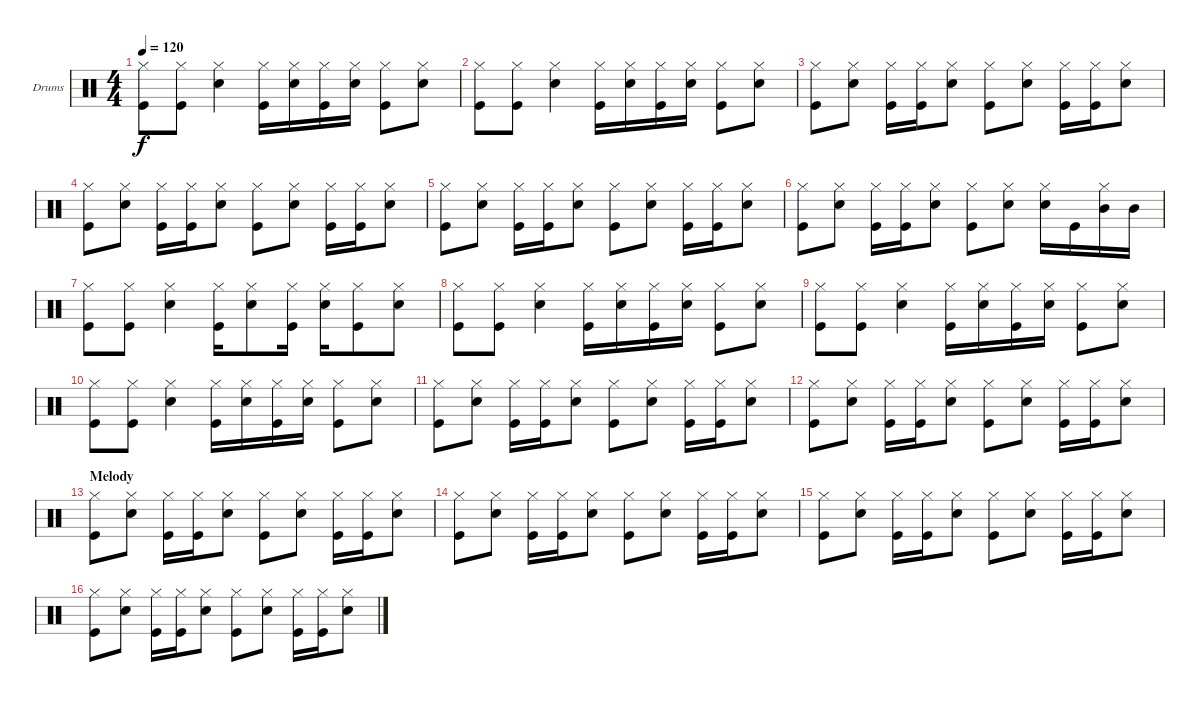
\defaultSystemsLayout 4
\bracketExtendMode groupsimilarinstruments
\firstSystemTrackNameOrientation horizontal
\otherSystemsTrackNameOrientation horizontal
\track ("Drumkit" "Drums") {instrument percussion}
\staff {score}
\articulation defaults
\ts (4 4)
\tempo 120
\clef neutral
\ks c
("Hi-Hat (closed)" "Kick (hit)").8{dy f} ("Hi-Hat (closed)" "Kick (hit)").8 ("Hi-Hat (closed)" "Snare (hit) 2").4 ("Hi-Hat (closed)" "Kick (hit)").16 ("Hi-Hat (closed)" "Snare (hit) 2").16 ("Hi-Hat (closed)" "Kick (hit)").16 ("Hi-Hat (closed)" "Snare (hit) 2").16 ("Hi-Hat (closed)" "Kick (hit)").8 ("Hi-Hat (closed)" "Snare (hit) 2").8 |
("Hi-Hat (closed)" "Kick (hit)").8 ("Hi-Hat (closed)" "Kick (hit)").8 ("Hi-Hat (closed)" "Snare (hit) 2").4 ("Hi-Hat (closed)" "Kick (hit)").16 ("Hi-Hat (closed)" "Snare (hit) 2").16 ("Hi-Hat (closed)" "Kick (hit)").16 ("Hi-Hat (closed)" "Snare (hit) 2").16 ("Hi-Hat (closed)" "Kick (hit)").8 ("Hi-Hat (closed)" "Snare (hit) 2").8 |
("Hi-Hat (closed)" "Kick (hit)").8 ("Hi-Hat (closed)" "Snare (hit) 2").8 ("Hi-Hat (closed)" "Kick (hit)").16 ("Hi-Hat (closed)" "Kick (hit)").16 ("Hi-Hat (closed)" "Snare (hit) 2").8 ("Hi-Hat (closed)" "Kick (hit)").8 ("Hi-Hat (closed)" "Snare (hit) 2").8 ("Hi-Hat (closed)" "Kick (hit)").16 ("Hi-Hat (closed)" "Kick (hit)").16 ("Hi-Hat (closed)" "Snare (hit) 2").8 |
("Hi-Hat (closed)" "Kick (hit)").8 ("Hi-Hat (closed)" "Snare (hit) 2").8 ("Hi-Hat (closed)" "Kick (hit)").16 ("Hi-Hat (closed)" "Kick (hit)").16 ("Hi-Hat (closed)" "Snare (hit) 2").8 ("Hi-Hat (closed)" "Kick (hit)").8 ("Hi-Hat (closed)" "Snare (hit) 2").8 ("Hi-Hat (closed)" "Kick (hit)").16 ("Hi-Hat (closed)" "Kick (hit)").16 ("Hi-Hat (closed)" "Snare (hit) 2").8 |
("Hi-Hat (closed)" "Kick (hit)").8 ("Hi-Hat (closed)" "Snare (hit) 2").8 ("Hi-Hat (closed)" "Kick (hit)").16 ("Hi-Hat (closed)" "Kick (hit)").16 ("Hi-Hat (closed)" "Snare (hit) 2").8 ("Hi-Hat (closed)" "Kick (hit)").8 ("Hi-Hat (closed)" "Snare (hit) 2").8 ("Hi-Hat (closed)" "Kick (hit)").16 ("Hi-Hat (closed)" "Kick (hit)").16 ("Hi-Hat (closed)" "Snare (hit) 2").8 |
("Hi-Hat (closed)" "Kick (hit)").8 ("Hi-Hat (closed)" "Snare (hit) 2").8 ("Hi-Hat (closed)" "Kick (hit)").16 ("Hi-Hat (closed)" "Kick (hit)").16 ("Hi-Hat (closed)" "Snare (hit) 2").8 ("Hi-Hat (closed)" "Kick (hit)").8 ("Hi-Hat (closed)" "Snare (hit) 2").8 ("Hi-Hat (closed)" "Snare (hit) 2").16 "Kick (hit)".16 ("Hi-Hat (closed)" "Mid Tom (hit)").16 "Mid Tom (hit)".16 |
("Hi-Hat (closed)" "Kick (hit)").8 ("Hi-Hat (closed)" "Kick (hit)").8 ("Hi-Hat (closed)" "Snare (hit) 2").4 ("Hi-Hat (closed)" "Kick (hit)").16 ("Hi-Hat (closed)" "Snare (hit) 2").8 ("Hi-Hat (closed)" "Kick (hit)").16 ("Hi-Hat (closed)" "Snare (hit) 2").16 ("Hi-Hat (closed)" "Kick (hit)").8 ("Hi-Hat (closed)" "Snare (hit) 2").8 |
("Hi-Hat (closed)" "Kick (hit)").8 ("Hi-Hat (closed)" "Kick (hit)").8 ("Hi-Hat (closed)" "Snare (hit) 2").4 ("Hi-Hat (closed)" "Kick (hit)").16 ("Hi-Hat (closed)" "Snare (hit) 2").16 ("Hi-Hat (closed)" "Kick (hit)").16 ("Hi-Hat (closed)" "Snare (hit) 2").16 ("Hi-Hat (closed)" "Kick (hit)").8 ("Hi-Hat (closed)" "Snare (hit) 2").8 |
("Hi-Hat (closed)" "Kick (hit)").8 ("Hi-Hat (closed)" "Kick (hit)").8 ("Hi-Hat (closed)" "Snare (hit) 2").4 ("Hi-Hat (closed)" "Kick (hit)").16 ("Hi-Hat (closed)" "Snare (hit) 2").16 ("Hi-Hat (closed)" "Kick (hit)").16 ("Hi-Hat (closed)" "Snare (hit) 2").16 ("Hi-Hat (closed)" "Kick (hit)").8 ("Hi-Hat (closed)" "Snare (hit) 2").8 |
("Hi-Hat (closed)" "Kick (hit)").8 ("Hi-Hat (closed)" "Kick (hit)").8 ("Hi-Hat (closed)" "Snare (hit) 2").4 ("Hi-Hat (closed)" "Kick (hit)").16 ("Hi-Hat (closed)" "Snare (hit) 2").16 ("Hi-Hat (closed)" "Kick (hit)").16 ("Hi-Hat (closed)" "Snare (hit) 2").16 ("Hi-Hat (closed)" "Kick (hit)").8 ("Hi-Hat (closed)" "Snare (hit) 2").8 |
("Hi-Hat (closed)" "Kick (hit)").8 ("Hi-Hat (closed)" "Snare (hit) 2").8 ("Hi-Hat (closed)" "Kick (hit)").16 ("Hi-Hat (closed)" "Kick (hit)").16 ("Hi-Hat (closed)" "Snare (hit) 2").8 ("Hi-Hat (closed)" "Kick (hit)").8 ("Hi-Hat (closed)" "Snare (hit) 2").8 ("Hi-Hat (closed)" "Kick (hit)").16 ("Hi-Hat (closed)" "Kick (hit)").16 ("Hi-Hat (closed)" "Snare (hit) 2").8 |
("Hi-Hat (closed)" "Kick (hit)").8 ("Hi-Hat (closed)" "Snare (hit) 2").8 ("Hi-Hat (closed)" "Kick (hit)").16 ("Hi-Hat (closed)" "Kick (hit)").16 ("Hi-Hat (closed)" "Snare (hit) 2").8 ("Hi-Hat (closed)" "Kick (hit)").8 ("Hi-Hat (closed)" "Snare (hit) 2").8 ("Hi-Hat (closed)" "Kick (hit)").16 ("Hi-Hat (closed)" "Kick (hit)").16 ("Hi-Hat (closed)" "Snare (hit) 2").8 |
\section ("" "Melody")
("Hi-Hat (closed)" "Kick (hit)").8 ("Hi-Hat (closed)" "Snare (hit) 2").8 ("Hi-Hat (closed)" "Kick (hit)").16 ("Hi-Hat (closed)" "Kick (hit)").16 ("Hi-Hat (closed)" "Snare (hit) 2").8 ("Hi-Hat (closed)" "Kick (hit)").8 ("Hi-Hat (closed)" "Snare (hit) 2").8 ("Hi-Hat (closed)" "Kick (hit)").16 ("Hi-Hat (closed)" "Kick (hit)").16 ("Hi-Hat (closed)" "Snare (hit) 2").8 |
("Hi-Hat (closed)" "Kick (hit)").8 ("Hi-Hat (closed)" "Snare (hit) 2").8 ("Hi-Hat (closed)" "Kick (hit)").16 ("Hi-Hat (closed)" "Kick (hit)").16 ("Hi-Hat (closed)" "Snare (hit) 2").8 ("Hi-Hat (closed)" "Kick (hit)").8 ("Hi-Hat (closed)" "Snare (hit) 2").8 ("Hi-Hat (closed)" "Kick (hit)").16 ("Hi-Hat (closed)" "Kick (hit)").16 ("Hi-Hat (closed)" "Snare (hit) 2").8 |
("Hi-Hat (closed)" "Kick (hit)").8 ("Hi-Hat (closed)" "Snare (hit) 2").8 ("Hi-Hat (closed)" "Kick (hit)").16 ("Hi-Hat (closed)" "Kick (hit)").16 ("Hi-Hat (closed)" "Snare (hit) 2").8 ("Hi-Hat (closed)" "Kick (hit)").8 ("Hi-Hat (closed)" "Snare (hit) 2").8 ("Hi-Hat (closed)" "Kick (hit)").16 ("Hi-Hat (closed)" "Kick (hit)").16 ("Hi-Hat (closed)" "Snare (hit) 2").8 |
("Hi-Hat (closed)" "Kick (hit)").8 ("Hi-Hat (closed)" "Snare (hit) 2").8 ("Hi-Hat (closed)" "Kick (hit)").16 ("Hi-Hat (closed)" "Kick (hit)").16 ("Hi-Hat (closed)" "Snare (hit) 2").8 ("Hi-Hat (closed)" "Kick (hit)").8 ("Hi-Hat (closed)" "Snare (hit) 2").8 ("Hi-Hat (closed)" "Kick (hit)").16 ("Hi-Hat (closed)" "Kick (hit)").16 ("Hi-Hat (closed)" "Snare (hit) 2").8
